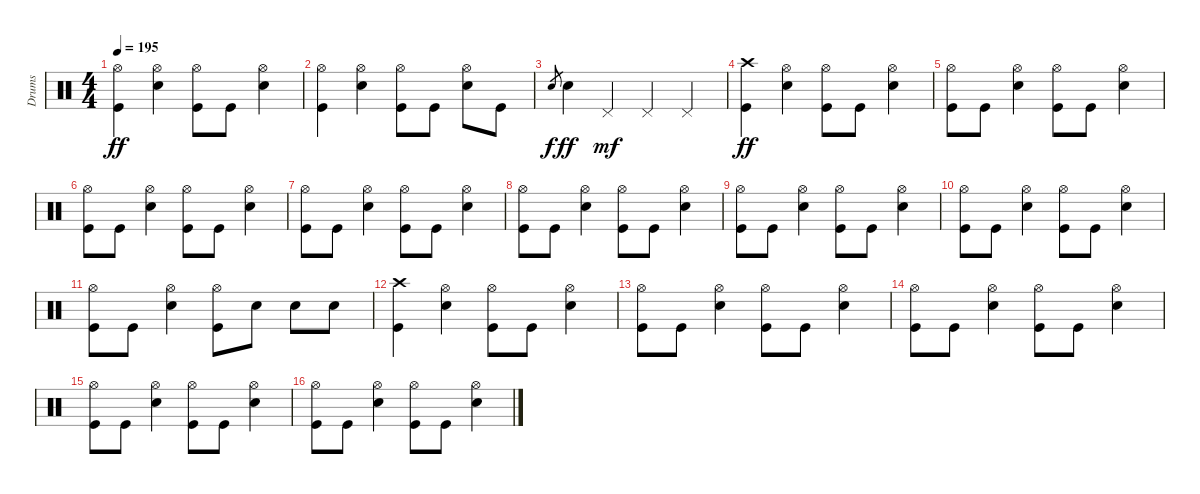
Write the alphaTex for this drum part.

\track ("Drums" "Drums") {instrument percussion}
\staff {score}
\articulation defaults
\ts (4 4)
\tempo 195
\clef neutral
\ks c
("Hi-Hat (open)" "Kick (hit)").4{dy ff} ("Hi-Hat (open)" "Snare (hit) 2").4 ("Hi-Hat (open)" "Kick (hit)").8 "Kick (hit)".8 ("Hi-Hat (open)" "Snare (hit) 2").4 |
("Hi-Hat (open)" "Kick (hit)").4 ("Hi-Hat (open)" "Snare (hit) 2").4 ("Hi-Hat (open)" "Kick (hit)").8 "Kick (hit)".8 ("Hi-Hat (open)" "Snare (hit) 2").8 "Kick (hit)".8 |
"Snare (hit) 2".8{gr dy f} "Snare (hit) 2".4{dy ff} "Pedal Hi-Hat (hit)".4{dy mf} "Pedal Hi-Hat (hit)".4 "Pedal Hi-Hat (hit)".4 |
("Crash high (hit)" "Kick (hit)").4{dy ff} ("Hi-Hat (open)" "Snare (hit) 2").4 ("Hi-Hat (open)" "Kick (hit)").8 "Kick (hit)".8 ("Hi-Hat (open)" "Snare (hit) 2").4 |
("Hi-Hat (open)" "Kick (hit)").8 "Kick (hit)".8 ("Hi-Hat (open)" "Snare (hit) 2").4 ("Hi-Hat (open)" "Kick (hit)").8 "Kick (hit)".8 ("Hi-Hat (open)" "Snare (hit) 2").4 |
("Hi-Hat (open)" "Kick (hit)").8 "Kick (hit)".8 ("Hi-Hat (open)" "Snare (hit) 2").4 ("Hi-Hat (open)" "Kick (hit)").8 "Kick (hit)".8 ("Hi-Hat (open)" "Snare (hit) 2").4 |
("Hi-Hat (open)" "Kick (hit)").8 "Kick (hit)".8 ("Hi-Hat (open)" "Snare (hit) 2").4 ("Hi-Hat (open)" "Kick (hit)").8 "Kick (hit)".8 ("Hi-Hat (open)" "Snare (hit) 2").4 |
("Hi-Hat (open)" "Kick (hit)").8 "Kick (hit)".8 ("Hi-Hat (open)" "Snare (hit) 2").4 ("Hi-Hat (open)" "Kick (hit)").8 "Kick (hit)".8 ("Hi-Hat (open)" "Snare (hit) 2").4 |
("Hi-Hat (open)" "Kick (hit)").8 "Kick (hit)".8 ("Hi-Hat (open)" "Snare (hit) 2").4 ("Hi-Hat (open)" "Kick (hit)").8 "Kick (hit)".8 ("Hi-Hat (open)" "Snare (hit) 2").4 |
("Hi-Hat (open)" "Kick (hit)").8 "Kick (hit)".8 ("Hi-Hat (open)" "Snare (hit) 2").4 ("Hi-Hat (open)" "Kick (hit)").8 "Kick (hit)".8 ("Hi-Hat (open)" "Snare (hit) 2").4 |
("Hi-Hat (open)" "Kick (hit)").8 "Kick (hit)".8 ("Hi-Hat (open)" "Snare (hit) 2").4 ("Hi-Hat (open)" "Kick (hit)").8 "Snare (hit) 2".8 "Snare (hit) 2".8 "Snare (hit) 2".8 |
("Crash high (hit)" "Kick (hit)").4 ("Hi-Hat (open)" "Snare (hit) 2").4 ("Hi-Hat (open)" "Kick (hit)").8 "Kick (hit)".8 ("Hi-Hat (open)" "Snare (hit) 2").4 |
("Hi-Hat (open)" "Kick (hit)").8 "Kick (hit)".8 ("Hi-Hat (open)" "Snare (hit) 2").4 ("Hi-Hat (open)" "Kick (hit)").8 "Kick (hit)".8 ("Hi-Hat (open)" "Snare (hit) 2").4 |
("Hi-Hat (open)" "Kick (hit)").8 "Kick (hit)".8 ("Hi-Hat (open)" "Snare (hit) 2").4 ("Hi-Hat (open)" "Kick (hit)").8 "Kick (hit)".8 ("Hi-Hat (open)" "Snare (hit) 2").4 |
("Hi-Hat (open)" "Kick (hit)").8 "Kick (hit)".8 ("Hi-Hat (open)" "Snare (hit) 2").4 ("Hi-Hat (open)" "Kick (hit)").8 "Kick (hit)".8 ("Hi-Hat (open)" "Snare (hit) 2").4 |
("Hi-Hat (open)" "Kick (hit)").8 "Kick (hit)".8 ("Hi-Hat (open)" "Snare (hit) 2").4 ("Hi-Hat (open)" "Kick (hit)").8 "Kick (hit)".8 ("Hi-Hat (open)" "Snare (hit) 2").4
